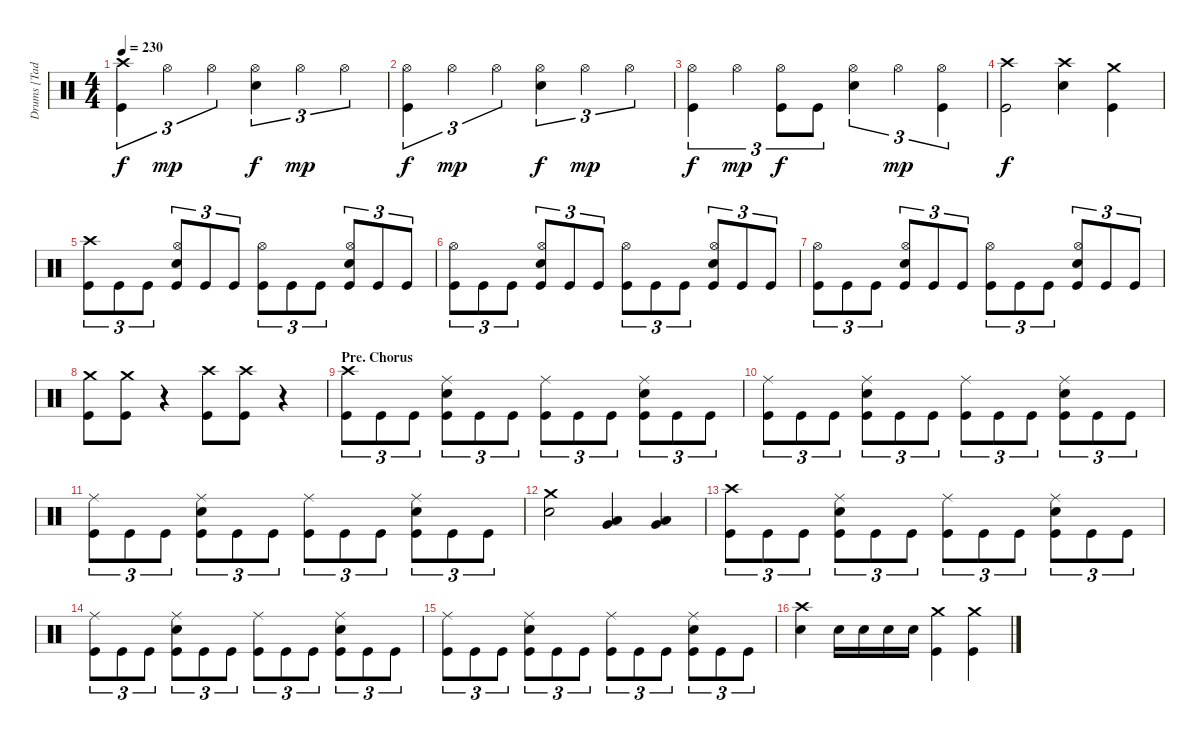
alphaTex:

\track ("Drums [Tad Leger]" "Drums [Tad") {instrument percussion}
\staff {score}
\articulation defaults
\ts (4 4)
\tempo 230
\clef neutral
\ks c
("Crash high (hit)" "Kick (hit)").4{tu (3 2) dy f} "Hi-Hat (open)".4{tu (3 2) dy mp} "Hi-Hat (open)".4{tu (3 2)} ("Hi-Hat (open)" "Electric Snare (hit)").4{tu (3 2) dy f} "Hi-Hat (open)".4{tu (3 2) dy mp} "Hi-Hat (open)".4{tu (3 2)} |
("Hi-Hat (open)" "Kick (hit)").4{tu (3 2) dy f} "Hi-Hat (open)".4{tu (3 2) dy mp} "Hi-Hat (open)".4{tu (3 2)} ("Hi-Hat (open)" "Electric Snare (hit)").4{tu (3 2) dy f} "Hi-Hat (open)".4{tu (3 2) dy mp} "Hi-Hat (open)".4{tu (3 2)} |
("Hi-Hat (open)" "Kick (hit)").4{tu (3 2) dy f} "Hi-Hat (open)".4{tu (3 2) dy mp} ("Hi-Hat (open)" "Kick (hit)").8{tu (3 2) dy f} "Kick (hit)".8{tu (3 2)} ("Hi-Hat (open)" "Electric Snare (hit)").4{tu (3 2)} "Hi-Hat (open)".4{tu (3 2) dy mp} ("Hi-Hat (open)" "Kick (hit)").4{tu (3 2)} |
("Crash high (hit)" "Kick (hit)").2{dy f} ("Crash high (hit)" "Electric Snare (hit)").4 ("Crash medium (hit)" "Kick (hit)").4 |
("Crash high (hit)" "Kick (hit)").8{tu (3 2)} "Kick (hit)".8{tu (3 2)} "Kick (hit)".8{tu (3 2)} ("Hi-Hat (open)" "Electric Snare (hit)" "Kick (hit)").8{tu (3 2)} "Kick (hit)".8{tu (3 2)} "Kick (hit)".8{tu (3 2)} ("Hi-Hat (open)" "Kick (hit)").8{tu (3 2)} "Kick (hit)".8{tu (3 2)} "Kick (hit)".8{tu (3 2)} ("Hi-Hat (open)" "Electric Snare (hit)" "Kick (hit)").8{tu (3 2)} "Kick (hit)".8{tu (3 2)} "Kick (hit)".8{tu (3 2)} |
("Hi-Hat (open)" "Kick (hit)").8{tu (3 2)} "Kick (hit)".8{tu (3 2)} "Kick (hit)".8{tu (3 2)} ("Hi-Hat (open)" "Electric Snare (hit)" "Kick (hit)").8{tu (3 2)} "Kick (hit)".8{tu (3 2)} "Kick (hit)".8{tu (3 2)} ("Hi-Hat (open)" "Kick (hit)").8{tu (3 2)} "Kick (hit)".8{tu (3 2)} "Kick (hit)".8{tu (3 2)} ("Hi-Hat (open)" "Electric Snare (hit)" "Kick (hit)").8{tu (3 2)} "Kick (hit)".8{tu (3 2)} "Kick (hit)".8{tu (3 2)} |
("Hi-Hat (open)" "Kick (hit)").8{tu (3 2)} "Kick (hit)".8{tu (3 2)} "Kick (hit)".8{tu (3 2)} ("Hi-Hat (open)" "Electric Snare (hit)" "Kick (hit)").8{tu (3 2)} "Kick (hit)".8{tu (3 2)} "Kick (hit)".8{tu (3 2)} ("Hi-Hat (open)" "Kick (hit)").8{tu (3 2)} "Kick (hit)".8{tu (3 2)} "Kick (hit)".8{tu (3 2)} ("Hi-Hat (open)" "Electric Snare (hit)" "Kick (hit)").8{tu (3 2)} "Kick (hit)".8{tu (3 2)} "Kick (hit)".8{tu (3 2)} |
("Crash medium (hit)" "Kick (hit)").8 ("Crash medium (hit)" "Kick (hit)").8 r.4 ("Crash high (hit)" "Kick (hit)").8 ("Crash high (hit)" "Kick (hit)").8 r.4 |
\section ("" "Pre. Chorus")
("Crash high (hit)" "Kick (hit)").8{tu (3 2)} "Kick (hit)".8{tu (3 2)} "Kick (hit)".8{tu (3 2)} ("Ride (middle)" "Electric Snare (hit)" "Kick (hit)").8{tu (3 2)} "Kick (hit)".8{tu (3 2)} "Kick (hit)".8{tu (3 2)} ("Ride (middle)" "Kick (hit)").8{tu (3 2)} "Kick (hit)".8{tu (3 2)} "Kick (hit)".8{tu (3 2)} ("Ride (middle)" "Electric Snare (hit)" "Kick (hit)").8{tu (3 2)} "Kick (hit)".8{tu (3 2)} "Kick (hit)".8{tu (3 2)} |
("Ride (middle)" "Kick (hit)").8{tu (3 2)} "Kick (hit)".8{tu (3 2)} "Kick (hit)".8{tu (3 2)} ("Ride (middle)" "Electric Snare (hit)" "Kick (hit)").8{tu (3 2)} "Kick (hit)".8{tu (3 2)} "Kick (hit)".8{tu (3 2)} ("Ride (middle)" "Kick (hit)").8{tu (3 2)} "Kick (hit)".8{tu (3 2)} "Kick (hit)".8{tu (3 2)} ("Ride (middle)" "Electric Snare (hit)" "Kick (hit)").8{tu (3 2)} "Kick (hit)".8{tu (3 2)} "Kick (hit)".8{tu (3 2)} |
("Ride (middle)" "Kick (hit)").8{tu (3 2)} "Kick (hit)".8{tu (3 2)} "Kick (hit)".8{tu (3 2)} ("Ride (middle)" "Electric Snare (hit)" "Kick (hit)").8{tu (3 2)} "Kick (hit)".8{tu (3 2)} "Kick (hit)".8{tu (3 2)} ("Ride (middle)" "Kick (hit)").8{tu (3 2)} "Kick (hit)".8{tu (3 2)} "Kick (hit)".8{tu (3 2)} ("Ride (middle)" "Electric Snare (hit)" "Kick (hit)").8{tu (3 2)} "Kick (hit)".8{tu (3 2)} "Kick (hit)".8{tu (3 2)} |
("Crash medium (hit)" "Electric Snare (hit)").2 ("Very Low Tom (hit)" "Low Tom (hit)").4 ("Very Low Tom (hit)" "Low Tom (hit)").4 |
("Crash high (hit)" "Kick (hit)").8{tu (3 2)} "Kick (hit)".8{tu (3 2)} "Kick (hit)".8{tu (3 2)} ("Ride (middle)" "Electric Snare (hit)" "Kick (hit)").8{tu (3 2)} "Kick (hit)".8{tu (3 2)} "Kick (hit)".8{tu (3 2)} ("Ride (middle)" "Kick (hit)").8{tu (3 2)} "Kick (hit)".8{tu (3 2)} "Kick (hit)".8{tu (3 2)} ("Ride (middle)" "Electric Snare (hit)" "Kick (hit)").8{tu (3 2)} "Kick (hit)".8{tu (3 2)} "Kick (hit)".8{tu (3 2)} |
("Ride (middle)" "Kick (hit)").8{tu (3 2)} "Kick (hit)".8{tu (3 2)} "Kick (hit)".8{tu (3 2)} ("Ride (middle)" "Electric Snare (hit)" "Kick (hit)").8{tu (3 2)} "Kick (hit)".8{tu (3 2)} "Kick (hit)".8{tu (3 2)} ("Ride (middle)" "Kick (hit)").8{tu (3 2)} "Kick (hit)".8{tu (3 2)} "Kick (hit)".8{tu (3 2)} ("Ride (middle)" "Electric Snare (hit)" "Kick (hit)").8{tu (3 2)} "Kick (hit)".8{tu (3 2)} "Kick (hit)".8{tu (3 2)} |
("Ride (middle)" "Kick (hit)").8{tu (3 2)} "Kick (hit)".8{tu (3 2)} "Kick (hit)".8{tu (3 2)} ("Ride (middle)" "Electric Snare (hit)" "Kick (hit)").8{tu (3 2)} "Kick (hit)".8{tu (3 2)} "Kick (hit)".8{tu (3 2)} ("Ride (middle)" "Kick (hit)").8{tu (3 2)} "Kick (hit)".8{tu (3 2)} "Kick (hit)".8{tu (3 2)} ("Ride (middle)" "Electric Snare (hit)" "Kick (hit)").8{tu (3 2)} "Kick (hit)".8{tu (3 2)} "Kick (hit)".8{tu (3 2)} |
("Crash high (hit)" "Electric Snare (hit)").4 "Electric Snare (hit)".16 "Electric Snare (hit)".16 "Electric Snare (hit)".16 "Electric Snare (hit)".16 ("Crash medium (hit)" "Kick (hit)").4 ("Crash medium (hit)" "Kick (hit)").4
